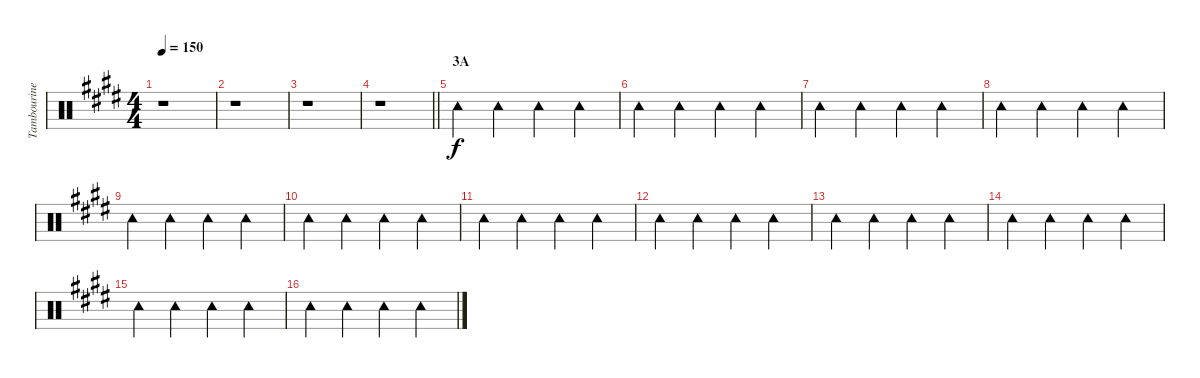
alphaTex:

\track ("Tambourine" "Tambourine") {instrument percussion}
\staff {score}
\articulation defaults
\ts (4 4)
\tempo 150
\clef neutral
\ks e
r.1{dy f} |
r.1 |
r.1 |
\barLineRight lightlight
r.1 |
\section ("" "3A")
"Tambourine (hit)".4 "Tambourine (hit)".4 "Tambourine (hit)".4 "Tambourine (hit)".4 |
"Tambourine (hit)".4 "Tambourine (hit)".4 "Tambourine (hit)".4 "Tambourine (hit)".4 |
"Tambourine (hit)".4 "Tambourine (hit)".4 "Tambourine (hit)".4 "Tambourine (hit)".4 |
"Tambourine (hit)".4 "Tambourine (hit)".4 "Tambourine (hit)".4 "Tambourine (hit)".4 |
"Tambourine (hit)".4 "Tambourine (hit)".4 "Tambourine (hit)".4 "Tambourine (hit)".4 |
"Tambourine (hit)".4 "Tambourine (hit)".4 "Tambourine (hit)".4 "Tambourine (hit)".4 |
"Tambourine (hit)".4 "Tambourine (hit)".4 "Tambourine (hit)".4 "Tambourine (hit)".4 |
"Tambourine (hit)".4 "Tambourine (hit)".4 "Tambourine (hit)".4 "Tambourine (hit)".4 |
"Tambourine (hit)".4 "Tambourine (hit)".4 "Tambourine (hit)".4 "Tambourine (hit)".4 |
"Tambourine (hit)".4 "Tambourine (hit)".4 "Tambourine (hit)".4 "Tambourine (hit)".4 |
"Tambourine (hit)".4 "Tambourine (hit)".4 "Tambourine (hit)".4 "Tambourine (hit)".4 |
"Tambourine (hit)".4 "Tambourine (hit)".4 "Tambourine (hit)".4 "Tambourine (hit)".4
